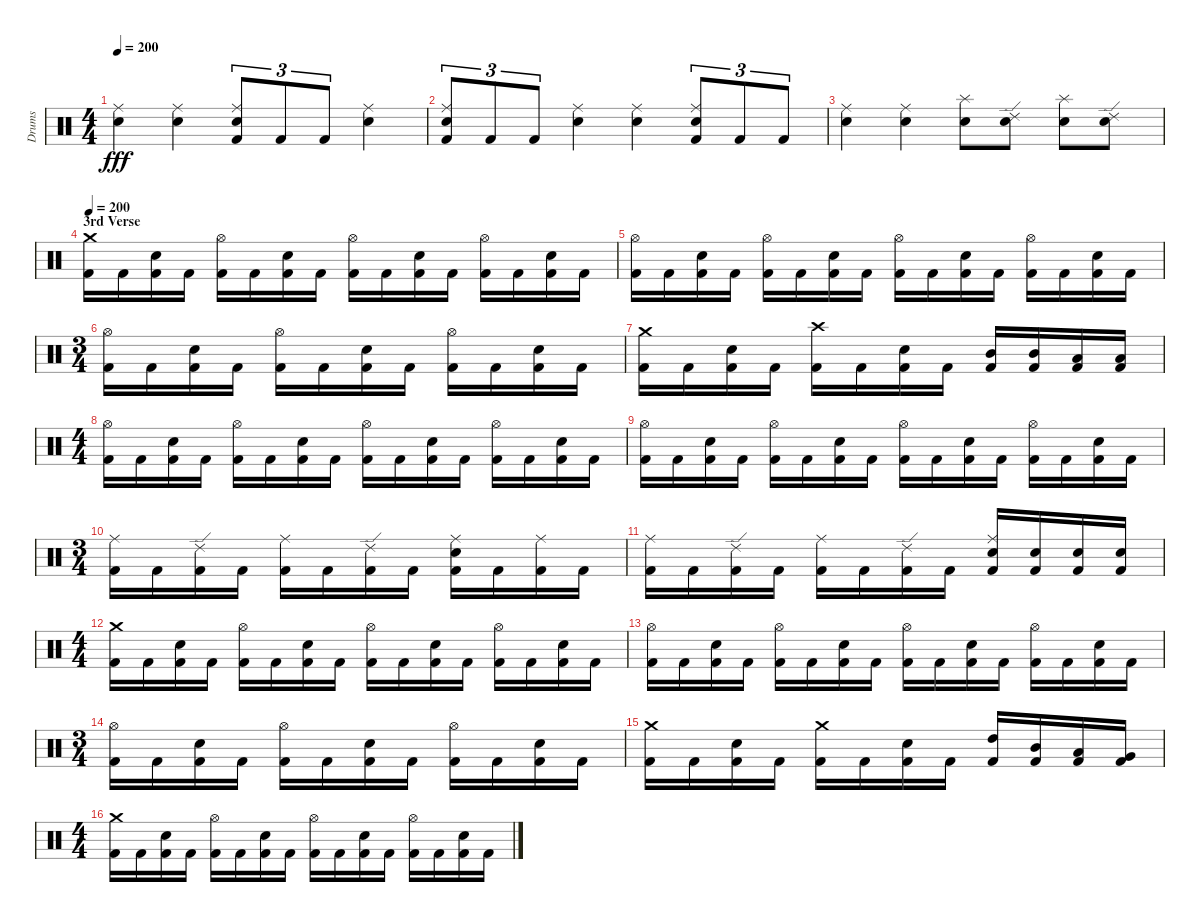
\track ("Drums" "Drums") {instrument percussion}
\staff {score}
\articulation defaults
\ts (4 4)
\tempo 200
\clef neutral
\ks c
("Electric Snare (hit)" "Ride (middle)").4{dy fff} ("Electric Snare (hit)" "Ride (middle)").4 ("Kick (hit) 2" "Electric Snare (hit)" "Ride (middle)").8{tu (3 2)} "Kick (hit) 2".8{tu (3 2)} "Kick (hit) 2".8{tu (3 2)} ("Electric Snare (hit)" "Ride (middle)").4 |
("Kick (hit) 2" "Electric Snare (hit)" "Ride (middle)").8{tu (3 2)} "Kick (hit) 2".8{tu (3 2)} "Kick (hit) 2".8{tu (3 2)} ("Electric Snare (hit)" "Ride (middle)").4 ("Electric Snare (hit)" "Ride (middle)").4 ("Kick (hit) 2" "Electric Snare (hit)" "Ride (middle)").8{tu (3 2)} "Kick (hit) 2".8{tu (3 2)} "Kick (hit) 2".8{tu (3 2)} |
("Electric Snare (hit)" "Ride (middle)").4 ("Electric Snare (hit)" "Ride (middle)").4 ("Electric Snare (hit)" "Splash (hit)").8 ("Electric Snare (hit)" "Ride (edge) 2").8 ("Electric Snare (hit)" "Splash (hit)").8 ("Electric Snare (hit)" "Ride (edge) 2").8 |
\section ("" "3rd Verse")
\tempo 200
("Kick (hit) 2" "Crash medium (hit)").16 "Kick (hit) 2".16 ("Kick (hit) 2" "Electric Snare (hit)").16 "Kick (hit) 2".16 ("Kick (hit) 2" "Hi-Hat (open)").16 "Kick (hit) 2".16 ("Kick (hit) 2" "Electric Snare (hit)").16 "Kick (hit) 2".16 ("Kick (hit) 2" "Hi-Hat (open)").16 "Kick (hit) 2".16 ("Kick (hit) 2" "Electric Snare (hit)").16 "Kick (hit) 2".16 ("Kick (hit) 2" "Hi-Hat (open)").16 "Kick (hit) 2".16 ("Kick (hit) 2" "Electric Snare (hit)").16 "Kick (hit) 2".16 |
("Kick (hit) 2" "Hi-Hat (open)").16 "Kick (hit) 2".16 ("Kick (hit) 2" "Electric Snare (hit)").16 "Kick (hit) 2".16 ("Kick (hit) 2" "Hi-Hat (open)").16 "Kick (hit) 2".16 ("Kick (hit) 2" "Electric Snare (hit)").16 "Kick (hit) 2".16 ("Kick (hit) 2" "Hi-Hat (open)").16 "Kick (hit) 2".16 ("Kick (hit) 2" "Electric Snare (hit)").16 "Kick (hit) 2".16 ("Kick (hit) 2" "Hi-Hat (open)").16 "Kick (hit) 2".16 ("Kick (hit) 2" "Electric Snare (hit)").16 "Kick (hit) 2".16 |
\ts (3 4)
("Kick (hit) 2" "Hi-Hat (open)").16 "Kick (hit) 2".16 ("Kick (hit) 2" "Electric Snare (hit)").16 "Kick (hit) 2".16 ("Kick (hit) 2" "Hi-Hat (open)").16 "Kick (hit) 2".16 ("Kick (hit) 2" "Electric Snare (hit)").16 "Kick (hit) 2".16 ("Kick (hit) 2" "Hi-Hat (open)").16 "Kick (hit) 2".16 ("Kick (hit) 2" "Electric Snare (hit)").16 "Kick (hit) 2".16 |
("Kick (hit) 2" "Crash medium (hit)").16 "Kick (hit) 2".16 ("Kick (hit) 2" "Electric Snare (hit)").16 "Kick (hit) 2".16 ("Kick (hit) 2" "Crash high (hit)").16 "Kick (hit) 2".16 ("Kick (hit) 2" "Electric Snare (hit)").16 "Kick (hit) 2".16 ("Kick (hit) 2" "Mid Tom (hit)").16 ("Kick (hit) 2" "Mid Tom (hit)").16 ("Kick (hit) 2" "Low Tom (hit)").16 ("Kick (hit) 2" "Low Tom (hit)").16 |
\ts (4 4)
("Kick (hit) 2" "Hi-Hat (open)").16 "Kick (hit) 2".16 ("Kick (hit) 2" "Electric Snare (hit)").16 "Kick (hit) 2".16 ("Kick (hit) 2" "Hi-Hat (open)").16 "Kick (hit) 2".16 ("Kick (hit) 2" "Electric Snare (hit)").16 "Kick (hit) 2".16 ("Kick (hit) 2" "Hi-Hat (open)").16 "Kick (hit) 2".16 ("Kick (hit) 2" "Electric Snare (hit)").16 "Kick (hit) 2".16 ("Kick (hit) 2" "Hi-Hat (open)").16 "Kick (hit) 2".16 ("Kick (hit) 2" "Electric Snare (hit)").16 "Kick (hit) 2".16 |
("Kick (hit) 2" "Hi-Hat (open)").16 "Kick (hit) 2".16 ("Kick (hit) 2" "Electric Snare (hit)").16 "Kick (hit) 2".16 ("Kick (hit) 2" "Hi-Hat (open)").16 "Kick (hit) 2".16 ("Kick (hit) 2" "Electric Snare (hit)").16 "Kick (hit) 2".16 ("Kick (hit) 2" "Hi-Hat (open)").16 "Kick (hit) 2".16 ("Kick (hit) 2" "Electric Snare (hit)").16 "Kick (hit) 2".16 ("Kick (hit) 2" "Hi-Hat (open)").16 "Kick (hit) 2".16 ("Kick (hit) 2" "Electric Snare (hit)").16 "Kick (hit) 2".16 |
\ts (3 4)
("Kick (hit) 2" "Ride (middle)").16 "Kick (hit) 2".16 ("Kick (hit) 2" "Ride (edge) 2").16 "Kick (hit) 2".16 ("Kick (hit) 2" "Ride (middle)").16 "Kick (hit) 2".16 ("Kick (hit) 2" "Ride (edge) 2").16 "Kick (hit) 2".16 ("Kick (hit) 2" "Electric Snare (hit)" "Ride (middle)").16 "Kick (hit) 2".16 ("Kick (hit) 2" "Ride (middle)").16 "Kick (hit) 2".16 |
("Kick (hit) 2" "Ride (middle)").16 "Kick (hit) 2".16 ("Kick (hit) 2" "Ride (edge) 2").16 "Kick (hit) 2".16 ("Kick (hit) 2" "Ride (middle)").16 "Kick (hit) 2".16 ("Kick (hit) 2" "Ride (edge) 2").16 "Kick (hit) 2".16 ("Kick (hit) 2" "Electric Snare (hit)" "Ride (middle)").16 ("Kick (hit) 2" "Electric Snare (hit)").16 ("Kick (hit) 2" "Electric Snare (hit)").16 ("Kick (hit) 2" "Electric Snare (hit)").16 |
\ts (4 4)
("Kick (hit) 2" "Crash medium (hit)").16 "Kick (hit) 2".16 ("Kick (hit) 2" "Electric Snare (hit)").16 "Kick (hit) 2".16 ("Kick (hit) 2" "Hi-Hat (open)").16 "Kick (hit) 2".16 ("Kick (hit) 2" "Electric Snare (hit)").16 "Kick (hit) 2".16 ("Kick (hit) 2" "Hi-Hat (open)").16 "Kick (hit) 2".16 ("Kick (hit) 2" "Electric Snare (hit)").16 "Kick (hit) 2".16 ("Kick (hit) 2" "Hi-Hat (open)").16 "Kick (hit) 2".16 ("Kick (hit) 2" "Electric Snare (hit)").16 "Kick (hit) 2".16 |
("Kick (hit) 2" "Hi-Hat (open)").16 "Kick (hit) 2".16 ("Kick (hit) 2" "Electric Snare (hit)").16 "Kick (hit) 2".16 ("Kick (hit) 2" "Hi-Hat (open)").16 "Kick (hit) 2".16 ("Kick (hit) 2" "Electric Snare (hit)").16 "Kick (hit) 2".16 ("Kick (hit) 2" "Hi-Hat (open)").16 "Kick (hit) 2".16 ("Kick (hit) 2" "Electric Snare (hit)").16 "Kick (hit) 2".16 ("Kick (hit) 2" "Hi-Hat (open)").16 "Kick (hit) 2".16 ("Kick (hit) 2" "Electric Snare (hit)").16 "Kick (hit) 2".16 |
\ts (3 4)
("Kick (hit) 2" "Hi-Hat (open)").16 "Kick (hit) 2".16 ("Kick (hit) 2" "Electric Snare (hit)").16 "Kick (hit) 2".16 ("Kick (hit) 2" "Hi-Hat (open)").16 "Kick (hit) 2".16 ("Kick (hit) 2" "Electric Snare (hit)").16 "Kick (hit) 2".16 ("Kick (hit) 2" "Hi-Hat (open)").16 "Kick (hit) 2".16 ("Kick (hit) 2" "Electric Snare (hit)").16 "Kick (hit) 2".16 |
("Kick (hit) 2" "Crash medium (hit)").16 "Kick (hit) 2".16 ("Kick (hit) 2" "Electric Snare (hit)").16 "Kick (hit) 2".16 ("Kick (hit) 2" "Crash medium (hit)").16 "Kick (hit) 2".16 ("Kick (hit) 2" "Electric Snare (hit)").16 "Kick (hit) 2".16 ("Kick (hit) 2" "High Tom (hit)").16 ("Kick (hit) 2" "Mid Tom (hit)").16 ("Kick (hit) 2" "Low Tom (hit)").16 ("Kick (hit) 2" "Very Low Tom (hit)").16 |
\ts (4 4)
("Kick (hit) 2" "Crash medium (hit)").16 "Kick (hit) 2".16 ("Kick (hit) 2" "Electric Snare (hit)").16 "Kick (hit) 2".16 ("Kick (hit) 2" "Hi-Hat (open)").16 "Kick (hit) 2".16 ("Kick (hit) 2" "Electric Snare (hit)").16 "Kick (hit) 2".16 ("Kick (hit) 2" "Hi-Hat (open)").16 "Kick (hit) 2".16 ("Kick (hit) 2" "Electric Snare (hit)").16 "Kick (hit) 2".16 ("Kick (hit) 2" "Hi-Hat (open)").16 "Kick (hit) 2".16 ("Kick (hit) 2" "Electric Snare (hit)").16 "Kick (hit) 2".16
